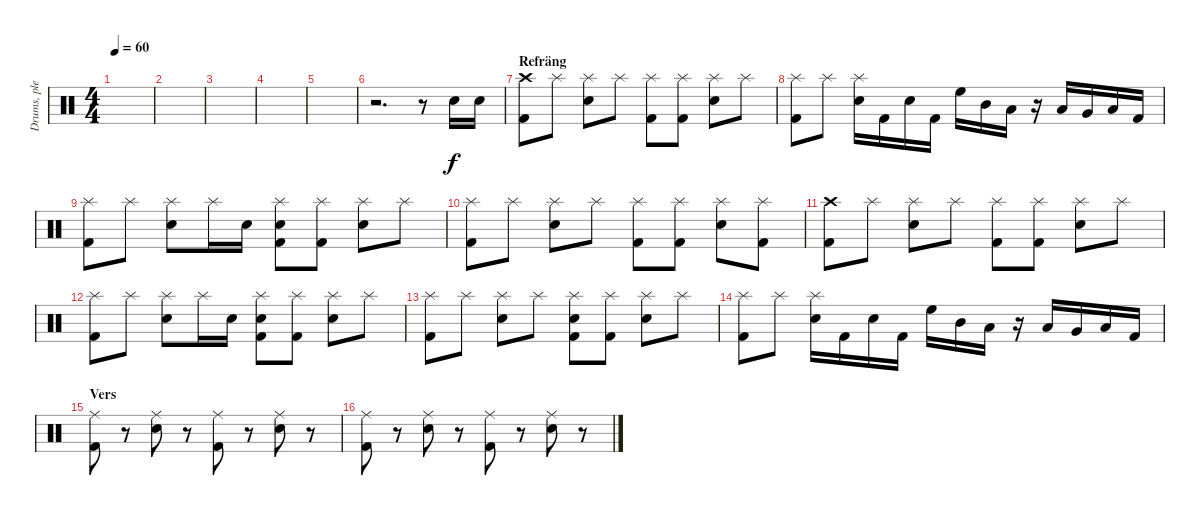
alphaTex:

\track ("Drums, please" "Drums, ple") {instrument percussion}
\staff {score}
\articulation defaults
\ts (4 4)
\tempo 60
\clef neutral
\ks c
|
|
|
|
|
r.2{d} r.8 "Electric Snare (hit)".16 "Electric Snare (hit)".16 |
\section ("" "Refräng")
("Kick (hit) 2" "Crash high (hit)").8 "Splash (hit)".8 ("Electric Snare (hit)" "Splash (hit)").8 "Splash (hit)".8 ("Kick (hit) 2" "Splash (hit)").8 ("Kick (hit) 2" "Splash (hit)").8 ("Electric Snare (hit)" "Splash (hit)").8 "Splash (hit)".8 |
("Kick (hit) 2" "Splash (hit)").8 "Splash (hit)".8 ("Electric Snare (hit)" "Splash (hit)").16 "Kick (hit) 2".16 "Electric Snare (hit)".16 "Kick (hit) 2".16 "High Floor Tom (hit)".16 "Mid Tom (hit)".16 "Low Tom (hit)".16 r.16 "Low Tom (hit)".16 "Very Low Tom (hit)".16 "Low Floor Tom (hit)".16 "Kick (hit) 2".16 |
("Kick (hit) 2" "Splash (hit)").8 "Splash (hit)".8 ("Electric Snare (hit)" "Splash (hit)").8 "Splash (hit)".16 "Electric Snare (hit)".16 ("Kick (hit) 2" "Electric Snare (hit)" "Splash (hit)").8 ("Kick (hit) 2" "Splash (hit)").8 ("Electric Snare (hit)" "Splash (hit)").8 "Splash (hit)".8 |
("Kick (hit) 2" "Splash (hit)").8 "Splash (hit)".8 ("Electric Snare (hit)" "Splash (hit)").8 "Splash (hit)".8 ("Kick (hit) 2" "Splash (hit)").8 ("Kick (hit) 2" "Splash (hit)").8 ("Electric Snare (hit)" "Splash (hit)").8 ("Kick (hit) 2" "Splash (hit)").8 |
("Kick (hit) 2" "Crash high (hit)").8 "Splash (hit)".8 ("Electric Snare (hit)" "Splash (hit)").8 "Splash (hit)".8 ("Kick (hit) 2" "Splash (hit)").8 ("Kick (hit) 2" "Splash (hit)").8 ("Electric Snare (hit)" "Splash (hit)").8 "Splash (hit)".8 |
("Kick (hit) 2" "Splash (hit)").8 "Splash (hit)".8 ("Electric Snare (hit)" "Splash (hit)").8 "Splash (hit)".16 "Electric Snare (hit)".16 ("Kick (hit) 2" "Electric Snare (hit)" "Splash (hit)").8 ("Kick (hit) 2" "Splash (hit)").8 ("Electric Snare (hit)" "Splash (hit)").8 "Splash (hit)".8 |
("Kick (hit) 2" "Splash (hit)").8 "Splash (hit)".8 ("Electric Snare (hit)" "Splash (hit)").8 "Splash (hit)".8 ("Kick (hit) 2" "Electric Snare (hit)" "Splash (hit)").8 ("Kick (hit) 2" "Splash (hit)").8 ("Electric Snare (hit)" "Splash (hit)").8 "Splash (hit)".8 |
("Kick (hit) 2" "Splash (hit)").8 "Splash (hit)".8 ("Electric Snare (hit)" "Splash (hit)").16 "Kick (hit) 2".16 "Electric Snare (hit)".16 "Kick (hit) 2".16 "High Floor Tom (hit)".16 "Mid Tom (hit)".16 "Low Tom (hit)".16 r.16 "Low Tom (hit)".16 "Very Low Tom (hit)".16 "Low Floor Tom (hit)".16 "Kick (hit) 2".16 |
\section ("" "Vers")
("Kick (hit) 2" "Ride (middle)").8 r.8 ("Electric Snare (hit)" "Ride (middle)").8 r.8 ("Kick (hit) 2" "Ride (middle)").8 r.8 ("Electric Snare (hit)" "Ride (middle)").8 r.8 |
("Kick (hit) 2" "Ride (middle)").8 r.8 ("Electric Snare (hit)" "Ride (middle)").8 r.8 ("Kick (hit) 2" "Ride (middle)").8 r.8 ("Electric Snare (hit)" "Ride (middle)").8 r.8
